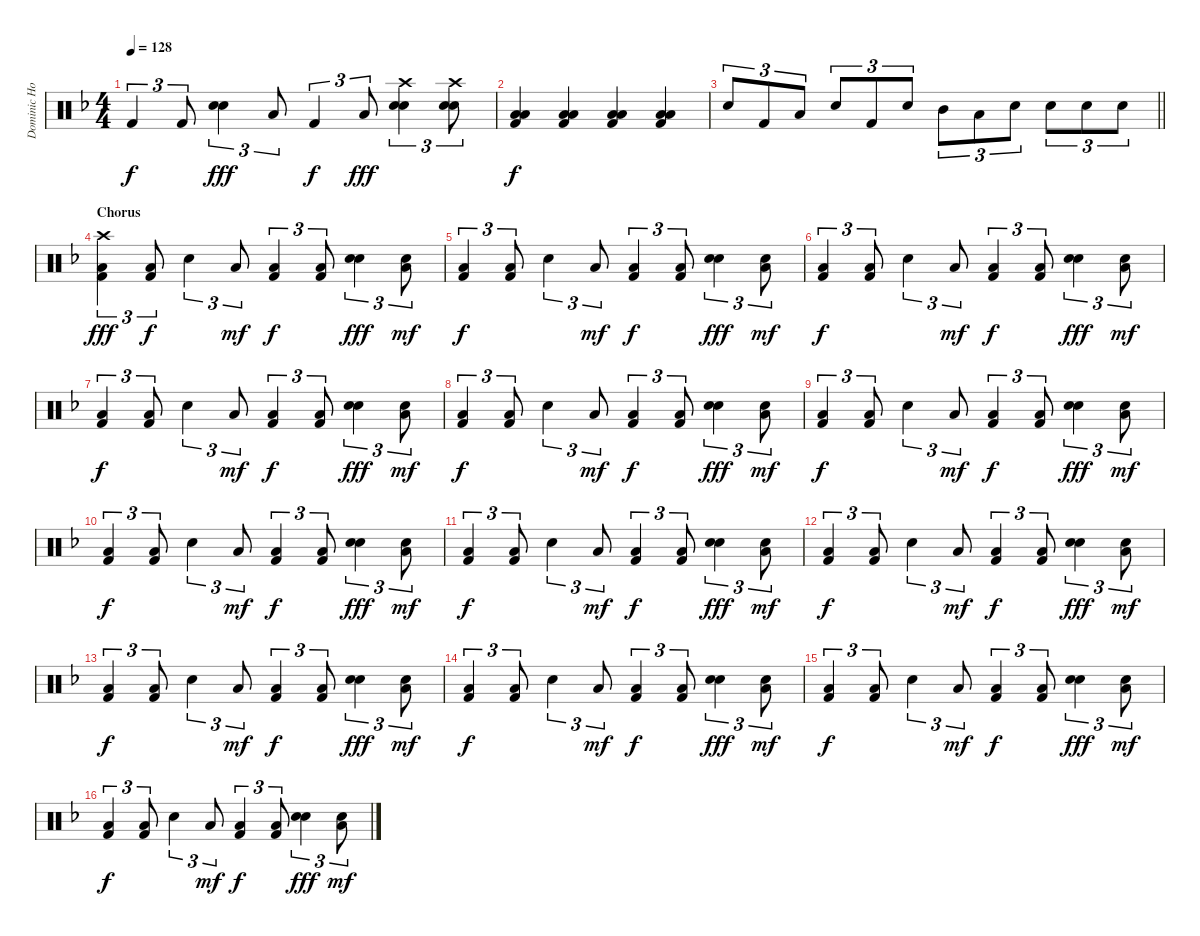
\track ("Dominic Howard Drums" "Dominic Ho") {instrument percussion}
\staff {score}
\articulation defaults
\ts (4 4)
\tempo 128
\clef neutral
\ks dminor "Kick (hit) 2".4{tu (3 2) dy f} "Kick (hit) 2".8{tu (3 2)}
("Electric Snare (hit)" "Snare (hit) 2").4{tu (3 2) dy fff} "Low Floor Tom (hit)".8{tu (3 2)} "Kick (hit) 2".4{tu (3 2) dy f} "Low Floor Tom (hit)".8{tu (3 2) dy fff} ("Crash high (hit)" "Hand Clap (hit)" "Snare (hit) 2").4{tu (3 2)} ("Crash high (hit)" "Hand Clap (hit)" "Snare (hit) 2").8{tu (3 2)} |
("Low Tom (hit)" "Low Floor Tom (hit)" "Kick (hit) 2").4{dy f} ("Low Tom (hit)" "Low Floor Tom (hit)" "Kick (hit) 2").4 ("Low Tom (hit)" "Low Floor Tom (hit)" "Kick (hit) 2").4 ("Low Tom (hit)" "Low Floor Tom (hit)" "Kick (hit) 2").4 |
\barLineRight lightlight "Snare (hit) 2".8{tu (3 2)} "Kick (hit) 2".8{tu (3 2)} "Low Floor Tom (hit)".8{tu (3 2)} "Snare (hit) 2".8{tu (3 2)} "Kick (hit) 2".8{tu (3 2)} "Snare (hit) 2".8{tu (3 2)} "Mid Tom (hit)".8{tu (3 2)} "Low Tom (hit)".8{tu (3 2)} "Electric Snare (hit)".8{tu (3 2)} "Snare (hit) 2".8{tu (3 2)} "Snare (hit) 2".8{tu (3 2)} "Snare (hit) 2".8{tu (3 2)}
|
\section ("" "Chorus")
("Crash high (hit)" "Low Floor Tom (hit)" "Kick (hit) 2").4{tu (3 2) dy fff} ("Low Floor Tom (hit)" "Kick (hit) 2").8{tu (3 2) dy f} "Snare (hit) 2".4{tu (3 2)} "Low Tom (hit)".8{tu (3 2) dy mf} ("Low Floor Tom (hit)" "Kick (hit) 2").4{tu (3 2) dy f} ("Low Floor Tom (hit)" "Kick (hit) 2").8{tu (3 2)} ("Hand Clap (hit)" "Snare (hit) 2").4{tu (3 2) dy fff} ("Hand Clap (hit)" "Low Tom (hit)").8{tu (3 2) dy mf} |
("Low Floor Tom (hit)" "Kick (hit) 2").4{tu (3 2) dy f} ("Low Floor Tom (hit)" "Kick (hit) 2").8{tu (3 2)} "Snare (hit) 2".4{tu (3 2)} "Low Tom (hit)".8{tu (3 2) dy mf} ("Low Floor Tom (hit)" "Kick (hit) 2").4{tu (3 2) dy f} ("Low Floor Tom (hit)" "Kick (hit) 2").8{tu (3 2)} ("Hand Clap (hit)" "Snare (hit) 2").4{tu (3 2) dy fff} ("Hand Clap (hit)" "Low Tom (hit)").8{tu (3 2) dy mf} |
("Low Floor Tom (hit)" "Kick (hit) 2").4{tu (3 2) dy f} ("Low Floor Tom (hit)" "Kick (hit) 2").8{tu (3 2)} "Snare (hit) 2".4{tu (3 2)} "Low Tom (hit)".8{tu (3 2) dy mf} ("Low Floor Tom (hit)" "Kick (hit) 2").4{tu (3 2) dy f} ("Low Floor Tom (hit)" "Kick (hit) 2").8{tu (3 2)} ("Hand Clap (hit)" "Snare (hit) 2").4{tu (3 2) dy fff} ("Hand Clap (hit)" "Low Tom (hit)").8{tu (3 2) dy mf} |
("Low Floor Tom (hit)" "Kick (hit) 2").4{tu (3 2) dy f} ("Low Floor Tom (hit)" "Kick (hit) 2").8{tu (3 2)} "Snare (hit) 2".4{tu (3 2)} "Low Tom (hit)".8{tu (3 2) dy mf} ("Low Floor Tom (hit)" "Kick (hit) 2").4{tu (3 2) dy f} ("Low Floor Tom (hit)" "Kick (hit) 2").8{tu (3 2)} ("Hand Clap (hit)" "Snare (hit) 2").4{tu (3 2) dy fff} ("Hand Clap (hit)" "Low Tom (hit)").8{tu (3 2) dy mf} |
("Low Floor Tom (hit)" "Kick (hit) 2").4{tu (3 2) dy f} ("Low Floor Tom (hit)" "Kick (hit) 2").8{tu (3 2)} "Snare (hit) 2".4{tu (3 2)} "Low Tom (hit)".8{tu (3 2) dy mf} ("Low Floor Tom (hit)" "Kick (hit) 2").4{tu (3 2) dy f} ("Low Floor Tom (hit)" "Kick (hit) 2").8{tu (3 2)} ("Hand Clap (hit)" "Snare (hit) 2").4{tu (3 2) dy fff} ("Hand Clap (hit)" "Low Tom (hit)").8{tu (3 2) dy mf} |
("Low Floor Tom (hit)" "Kick (hit) 2").4{tu (3 2) dy f} ("Low Floor Tom (hit)" "Kick (hit) 2").8{tu (3 2)} "Snare (hit) 2".4{tu (3 2)} "Low Tom (hit)".8{tu (3 2) dy mf} ("Low Floor Tom (hit)" "Kick (hit) 2").4{tu (3 2) dy f} ("Low Floor Tom (hit)" "Kick (hit) 2").8{tu (3 2)} ("Hand Clap (hit)" "Snare (hit) 2").4{tu (3 2) dy fff} ("Hand Clap (hit)" "Low Tom (hit)").8{tu (3 2) dy mf} |
("Low Floor Tom (hit)" "Kick (hit) 2").4{tu (3 2) dy f} ("Low Floor Tom (hit)" "Kick (hit) 2").8{tu (3 2)} "Snare (hit) 2".4{tu (3 2)} "Low Tom (hit)".8{tu (3 2) dy mf} ("Low Floor Tom (hit)" "Kick (hit) 2").4{tu (3 2) dy f} ("Low Floor Tom (hit)" "Kick (hit) 2").8{tu (3 2)} ("Hand Clap (hit)" "Snare (hit) 2").4{tu (3 2) dy fff} ("Hand Clap (hit)" "Low Tom (hit)").8{tu (3 2) dy mf} |
("Low Floor Tom (hit)" "Kick (hit) 2").4{tu (3 2) dy f} ("Low Floor Tom (hit)" "Kick (hit) 2").8{tu (3 2)} "Snare (hit) 2".4{tu (3 2)} "Low Tom (hit)".8{tu (3 2) dy mf} ("Low Floor Tom (hit)" "Kick (hit) 2").4{tu (3 2) dy f} ("Low Floor Tom (hit)" "Kick (hit) 2").8{tu (3 2)} ("Hand Clap (hit)" "Snare (hit) 2").4{tu (3 2) dy fff} ("Hand Clap (hit)" "Low Tom (hit)").8{tu (3 2) dy mf} |
("Low Floor Tom (hit)" "Kick (hit) 2").4{tu (3 2) dy f} ("Low Floor Tom (hit)" "Kick (hit) 2").8{tu (3 2)} "Snare (hit) 2".4{tu (3 2)} "Low Tom (hit)".8{tu (3 2) dy mf} ("Low Floor Tom (hit)" "Kick (hit) 2").4{tu (3 2) dy f} ("Low Floor Tom (hit)" "Kick (hit) 2").8{tu (3 2)} ("Hand Clap (hit)" "Snare (hit) 2").4{tu (3 2) dy fff} ("Hand Clap (hit)" "Low Tom (hit)").8{tu (3 2) dy mf} |
("Low Floor Tom (hit)" "Kick (hit) 2").4{tu (3 2) dy f} ("Low Floor Tom (hit)" "Kick (hit) 2").8{tu (3 2)} "Snare (hit) 2".4{tu (3 2)} "Low Tom (hit)".8{tu (3 2) dy mf} ("Low Floor Tom (hit)" "Kick (hit) 2").4{tu (3 2) dy f} ("Low Floor Tom (hit)" "Kick (hit) 2").8{tu (3 2)} ("Hand Clap (hit)" "Snare (hit) 2").4{tu (3 2) dy fff} ("Hand Clap (hit)" "Low Tom (hit)").8{tu (3 2) dy mf} |
("Low Floor Tom (hit)" "Kick (hit) 2").4{tu (3 2) dy f} ("Low Floor Tom (hit)" "Kick (hit) 2").8{tu (3 2)} "Snare (hit) 2".4{tu (3 2)} "Low Tom (hit)".8{tu (3 2) dy mf} ("Low Floor Tom (hit)" "Kick (hit) 2").4{tu (3 2) dy f} ("Low Floor Tom (hit)" "Kick (hit) 2").8{tu (3 2)} ("Hand Clap (hit)" "Snare (hit) 2").4{tu (3 2) dy fff} ("Hand Clap (hit)" "Low Tom (hit)").8{tu (3 2) dy mf} |
("Low Floor Tom (hit)" "Kick (hit) 2").4{tu (3 2) dy f} ("Low Floor Tom (hit)" "Kick (hit) 2").8{tu (3 2)} "Snare (hit) 2".4{tu (3 2)} "Low Tom (hit)".8{tu (3 2) dy mf} ("Low Floor Tom (hit)" "Kick (hit) 2").4{tu (3 2) dy f} ("Low Floor Tom (hit)" "Kick (hit) 2").8{tu (3 2)} ("Hand Clap (hit)" "Snare (hit) 2").4{tu (3 2) dy fff} ("Hand Clap (hit)" "Low Tom (hit)").8{tu (3 2) dy mf} |
("Low Floor Tom (hit)" "Kick (hit) 2").4{tu (3 2) dy f} ("Low Floor Tom (hit)" "Kick (hit) 2").8{tu (3 2)} "Snare (hit) 2".4{tu (3 2)} "Low Tom (hit)".8{tu (3 2) dy mf} ("Low Floor Tom (hit)" "Kick (hit) 2").4{tu (3 2) dy f} ("Low Floor Tom (hit)" "Kick (hit) 2").8{tu (3 2)} ("Hand Clap (hit)" "Snare (hit) 2").4{tu (3 2) dy fff} ("Hand Clap (hit)" "Low Tom (hit)").8{tu (3 2) dy mf}
